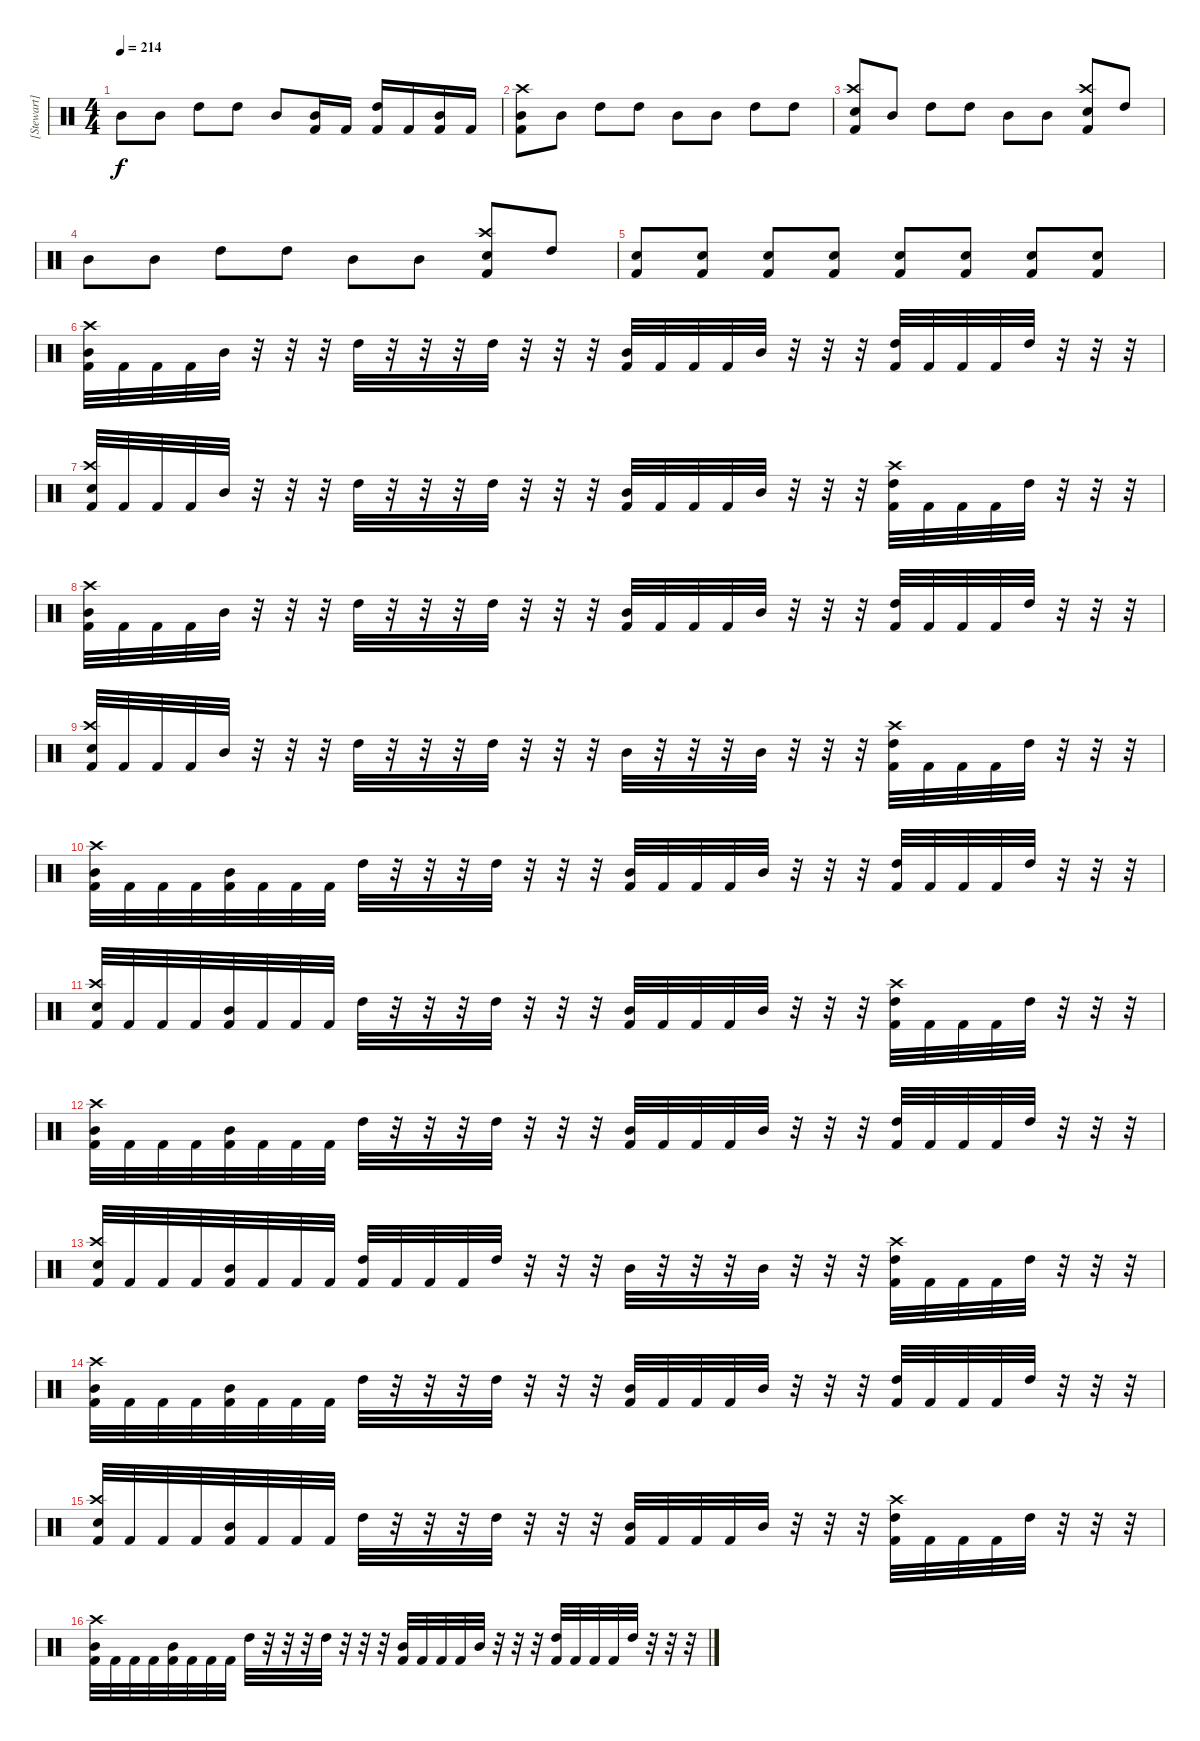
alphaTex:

\track ("[Stewart]" "[Stewart]") {instrument percussion}
\staff {score}
\articulation defaults
\ts (4 4)
\tempo 214
\clef neutral
\ks c "Mid Tom (hit)".8{dy f} "Mid Tom (hit)".8 "High Tom (hit)".8 "High Tom (hit)".8 "Mid Tom (hit)".8
("Mid Tom (hit)" "Kick (hit) 2").16 "Kick (hit) 2".16 ("High Tom (hit)" "Kick (hit) 2").16 "Kick (hit) 2".16 ("Mid Tom (hit)" "Kick (hit) 2").16 "Kick (hit) 2".16 |
("Crash high (hit)" "Mid Tom (hit)" "Kick (hit) 2").8 "Mid Tom (hit)".8 "High Tom (hit)".8 "High Tom (hit)".8 "Mid Tom (hit)".8 "Mid Tom (hit)".8 "High Tom (hit)".8 "High Tom (hit)".8 |
("Crash high (hit)" "Electric Snare (hit)" "Kick (hit) 2").8 "Mid Tom (hit)".8 "High Tom (hit)".8 "High Tom (hit)".8 "Mid Tom (hit)".8 "Mid Tom (hit)".8 ("Crash high (hit)" "Electric Snare (hit)" "Kick (hit) 2").8 "High Tom (hit)".8 |
"Mid Tom (hit)".8 "Mid Tom (hit)".8 "High Tom (hit)".8 "High Tom (hit)".8 "Mid Tom (hit)".8 "Mid Tom (hit)".8 ("Crash high (hit)" "Electric Snare (hit)" "Kick (hit) 2").8 "High Tom (hit)".8 |
("Kick (hit) 2" "Electric Snare (hit)").8 ("Kick (hit) 2" "Electric Snare (hit)").8 ("Kick (hit) 2" "Electric Snare (hit)").8 ("Kick (hit) 2" "Electric Snare (hit)").8 ("Kick (hit) 2" "Electric Snare (hit)").8 ("Kick (hit) 2" "Electric Snare (hit)").8 ("Kick (hit) 2" "Electric Snare (hit)").8 ("Kick (hit) 2" "Electric Snare (hit)").8 |
("Crash high (hit)" "Mid Tom (hit)" "Kick (hit) 2").32 "Kick (hit) 2".32 "Kick (hit) 2".32 "Kick (hit) 2".32 "Mid Tom (hit)".32 r.32 r.32 r.32 "High Tom (hit)".32 r.32 r.32 r.32 "High Tom (hit)".32 r.32 r.32 r.32 ("Mid Tom (hit)" "Kick (hit) 2").32 "Kick (hit) 2".32 "Kick (hit) 2".32 "Kick (hit) 2".32 "Mid Tom (hit)".32 r.32 r.32 r.32 ("High Tom (hit)" "Kick (hit) 2").32 "Kick (hit) 2".32 "Kick (hit) 2".32 "Kick (hit) 2".32 "High Tom (hit)".32 r.32 r.32 r.32 |
("Electric Snare (hit)" "Crash high (hit)" "Kick (hit) 2").32 "Kick (hit) 2".32 "Kick (hit) 2".32 "Kick (hit) 2".32 "Mid Tom (hit)".32 r.32 r.32 r.32 "High Tom (hit)".32 r.32 r.32 r.32 "High Tom (hit)".32 r.32 r.32 r.32 ("Mid Tom (hit)" "Kick (hit) 2").32 "Kick (hit) 2".32 "Kick (hit) 2".32 "Kick (hit) 2".32 "Mid Tom (hit)".32 r.32 r.32 r.32 ("Crash high (hit)" "High Tom (hit)" "Kick (hit) 2").32 "Kick (hit) 2".32 "Kick (hit) 2".32 "Kick (hit) 2".32 "High Tom (hit)".32 r.32 r.32 r.32 |
("Crash high (hit)" "Mid Tom (hit)" "Kick (hit) 2").32 "Kick (hit) 2".32 "Kick (hit) 2".32 "Kick (hit) 2".32 "Mid Tom (hit)".32 r.32 r.32 r.32 "High Tom (hit)".32 r.32 r.32 r.32 "High Tom (hit)".32 r.32 r.32 r.32 ("Mid Tom (hit)" "Kick (hit) 2").32 "Kick (hit) 2".32 "Kick (hit) 2".32 "Kick (hit) 2".32 "Mid Tom (hit)".32 r.32 r.32 r.32 ("High Tom (hit)" "Kick (hit) 2").32 "Kick (hit) 2".32 "Kick (hit) 2".32 "Kick (hit) 2".32 "High Tom (hit)".32 r.32 r.32 r.32 |
("Crash high (hit)" "Electric Snare (hit)" "Kick (hit) 2").32 "Kick (hit) 2".32 "Kick (hit) 2".32 "Kick (hit) 2".32 "Mid Tom (hit)".32 r.32 r.32 r.32 "High Tom (hit)".32 r.32 r.32 r.32 "High Tom (hit)".32 r.32 r.32 r.32 "Mid Tom (hit)".32 r.32 r.32 r.32 "Mid Tom (hit)".32 r.32 r.32 r.32 ("Crash high (hit)" "High Tom (hit)" "Kick (hit) 2").32 "Kick (hit) 2".32 "Kick (hit) 2".32 "Kick (hit) 2".32 "High Tom (hit)".32 r.32 r.32 r.32 |
("Crash high (hit)" "Mid Tom (hit)" "Kick (hit) 2").32 "Kick (hit) 2".32 "Kick (hit) 2".32 "Kick (hit) 2".32 ("Mid Tom (hit)" "Kick (hit) 2").32 "Kick (hit) 2".32 "Kick (hit) 2".32 "Kick (hit) 2".32 "High Tom (hit)".32 r.32 r.32 r.32 "High Tom (hit)".32 r.32 r.32 r.32 ("Mid Tom (hit)" "Kick (hit) 2").32 "Kick (hit) 2".32 "Kick (hit) 2".32 "Kick (hit) 2".32 "Mid Tom (hit)".32 r.32 r.32 r.32 ("High Tom (hit)" "Kick (hit) 2").32 "Kick (hit) 2".32 "Kick (hit) 2".32 "Kick (hit) 2".32 "High Tom (hit)".32 r.32 r.32 r.32 |
("Electric Snare (hit)" "Crash high (hit)" "Kick (hit) 2").32 "Kick (hit) 2".32 "Kick (hit) 2".32 "Kick (hit) 2".32 ("Mid Tom (hit)" "Kick (hit) 2").32 "Kick (hit) 2".32 "Kick (hit) 2".32 "Kick (hit) 2".32 "High Tom (hit)".32 r.32 r.32 r.32 "High Tom (hit)".32 r.32 r.32 r.32 ("Mid Tom (hit)" "Kick (hit) 2").32 "Kick (hit) 2".32 "Kick (hit) 2".32 "Kick (hit) 2".32 "Mid Tom (hit)".32 r.32 r.32 r.32 ("Crash high (hit)" "High Tom (hit)" "Kick (hit) 2").32 "Kick (hit) 2".32 "Kick (hit) 2".32 "Kick (hit) 2".32 "High Tom (hit)".32 r.32 r.32 r.32 |
("Crash high (hit)" "Mid Tom (hit)" "Kick (hit) 2").32 "Kick (hit) 2".32 "Kick (hit) 2".32 "Kick (hit) 2".32 ("Mid Tom (hit)" "Kick (hit) 2").32 "Kick (hit) 2".32 "Kick (hit) 2".32 "Kick (hit) 2".32 "High Tom (hit)".32 r.32 r.32 r.32 "High Tom (hit)".32 r.32 r.32 r.32 ("Mid Tom (hit)" "Kick (hit) 2").32 "Kick (hit) 2".32 "Kick (hit) 2".32 "Kick (hit) 2".32 "Mid Tom (hit)".32 r.32 r.32 r.32 ("High Tom (hit)" "Kick (hit) 2").32 "Kick (hit) 2".32 "Kick (hit) 2".32 "Kick (hit) 2".32 "High Tom (hit)".32 r.32 r.32 r.32 |
("Crash high (hit)" "Electric Snare (hit)" "Kick (hit) 2").32 "Kick (hit) 2".32 "Kick (hit) 2".32 "Kick (hit) 2".32 ("Mid Tom (hit)" "Kick (hit) 2").32 "Kick (hit) 2".32 "Kick (hit) 2".32 "Kick (hit) 2".32 ("High Tom (hit)" "Kick (hit) 2").32 "Kick (hit) 2".32 "Kick (hit) 2".32 "Kick (hit) 2".32 "High Tom (hit)".32 r.32 r.32 r.32 "Mid Tom (hit)".32 r.32 r.32 r.32 "Mid Tom (hit)".32 r.32 r.32 r.32 ("Crash high (hit)" "High Tom (hit)" "Kick (hit) 2").32 "Kick (hit) 2".32 "Kick (hit) 2".32 "Kick (hit) 2".32 "High Tom (hit)".32 r.32 r.32 r.32 |
("Crash high (hit)" "Mid Tom (hit)" "Kick (hit) 2").32 "Kick (hit) 2".32 "Kick (hit) 2".32 "Kick (hit) 2".32 ("Mid Tom (hit)" "Kick (hit) 2").32 "Kick (hit) 2".32 "Kick (hit) 2".32 "Kick (hit) 2".32 "High Tom (hit)".32 r.32 r.32 r.32 "High Tom (hit)".32 r.32 r.32 r.32 ("Mid Tom (hit)" "Kick (hit) 2").32 "Kick (hit) 2".32 "Kick (hit) 2".32 "Kick (hit) 2".32 "Mid Tom (hit)".32 r.32 r.32 r.32 ("High Tom (hit)" "Kick (hit) 2").32 "Kick (hit) 2".32 "Kick (hit) 2".32 "Kick (hit) 2".32 "High Tom (hit)".32 r.32 r.32 r.32 |
("Electric Snare (hit)" "Crash high (hit)" "Kick (hit) 2").32 "Kick (hit) 2".32 "Kick (hit) 2".32 "Kick (hit) 2".32 ("Mid Tom (hit)" "Kick (hit) 2").32 "Kick (hit) 2".32 "Kick (hit) 2".32 "Kick (hit) 2".32 "High Tom (hit)".32 r.32 r.32 r.32 "High Tom (hit)".32 r.32 r.32 r.32 ("Mid Tom (hit)" "Kick (hit) 2").32 "Kick (hit) 2".32 "Kick (hit) 2".32 "Kick (hit) 2".32 "Mid Tom (hit)".32 r.32 r.32 r.32 ("Crash high (hit)" "High Tom (hit)" "Kick (hit) 2").32 "Kick (hit) 2".32 "Kick (hit) 2".32 "Kick (hit) 2".32 "High Tom (hit)".32 r.32 r.32 r.32 |
("Crash high (hit)" "Mid Tom (hit)" "Kick (hit) 2").32 "Kick (hit) 2".32 "Kick (hit) 2".32 "Kick (hit) 2".32 ("Mid Tom (hit)" "Kick (hit) 2").32 "Kick (hit) 2".32 "Kick (hit) 2".32 "Kick (hit) 2".32 "High Tom (hit)".32 r.32 r.32 r.32 "High Tom (hit)".32 r.32 r.32 r.32 ("Mid Tom (hit)" "Kick (hit) 2").32 "Kick (hit) 2".32 "Kick (hit) 2".32 "Kick (hit) 2".32 "Mid Tom (hit)".32 r.32 r.32 r.32 ("High Tom (hit)" "Kick (hit) 2").32 "Kick (hit) 2".32 "Kick (hit) 2".32 "Kick (hit) 2".32 "High Tom (hit)".32 r.32 r.32 r.32
